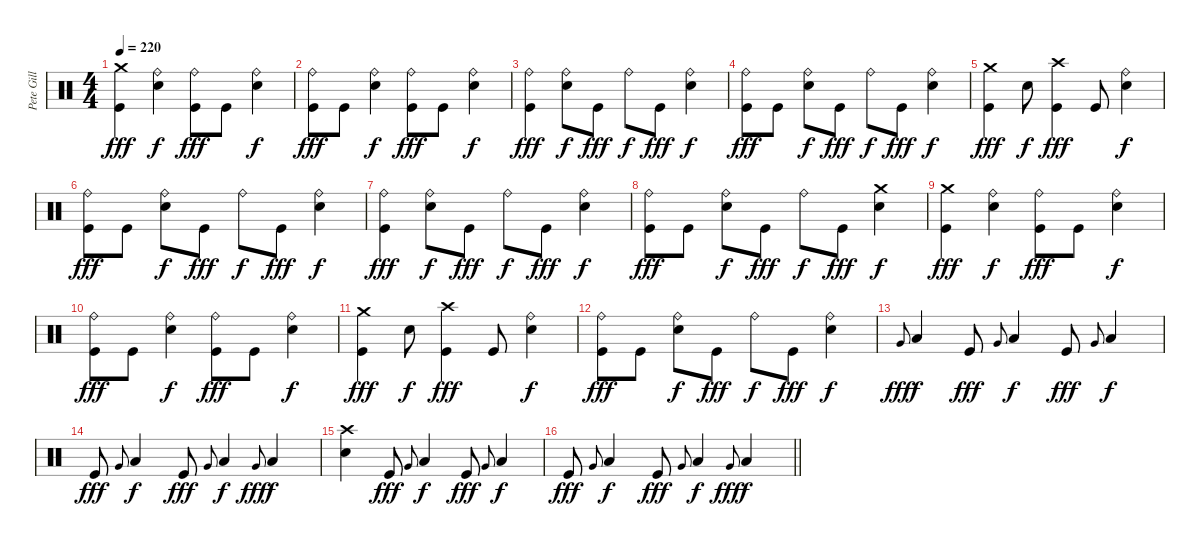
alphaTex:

\track ("Pete Gill" "Pete Gill") {instrument percussion}
\staff {score}
\articulation defaults
\ts (4 4)
\tempo 220
\clef neutral
\ks c
("Crash medium (hit)" "Kick (hit)").4{dy fff} ("Ride (bell)" "Electric Snare (hit)").4{dy f} ("Ride (bell)" "Kick (hit)").8{dy fff} "Kick (hit)".8 ("Ride (bell)" "Electric Snare (hit)").4{dy f} |
("Ride (bell)" "Kick (hit)").8{dy fff} "Kick (hit)".8 ("Ride (bell)" "Electric Snare (hit)").4{dy f} ("Ride (bell)" "Kick (hit)").8{dy fff} "Kick (hit)".8 ("Ride (bell)" "Electric Snare (hit)").4{dy f} |
("Ride (bell)" "Kick (hit)").4{dy fff} ("Ride (bell)" "Electric Snare (hit)").8{dy f} "Kick (hit)".8{dy fff} "Ride (bell)".8{dy f} "Kick (hit)".8{dy fff} ("Ride (bell)" "Electric Snare (hit)").4{dy f} |
("Ride (bell)" "Kick (hit)").8{dy fff} "Kick (hit)".8 ("Ride (bell)" "Electric Snare (hit)").8{dy f} "Kick (hit)".8{dy fff} "Ride (bell)".8{dy f} "Kick (hit)".8{dy fff} ("Ride (bell)" "Electric Snare (hit)").4{dy f} |
("Crash medium (hit)" "Kick (hit)").4{dy fff} "Electric Snare (hit)".8{dy f} ("Crash high (hit)" "Kick (hit)").4{dy fff} "Kick (hit)".8 ("Ride (bell)" "Electric Snare (hit)").4{dy f} |
("Ride (bell)" "Kick (hit)").8{dy fff} "Kick (hit)".8 ("Ride (bell)" "Electric Snare (hit)").8{dy f} "Kick (hit)".8{dy fff} "Ride (bell)".8{dy f} "Kick (hit)".8{dy fff} ("Ride (bell)" "Electric Snare (hit)").4{dy f} |
("Ride (bell)" "Kick (hit)").4{dy fff} ("Ride (bell)" "Electric Snare (hit)").8{dy f} "Kick (hit)".8{dy fff} "Ride (bell)".8{dy f} "Kick (hit)".8{dy fff} ("Ride (bell)" "Electric Snare (hit)").4{dy f} |
("Ride (bell)" "Kick (hit)").8{dy fff} "Kick (hit)".8 ("Ride (bell)" "Electric Snare (hit)").8{dy f} "Kick (hit)".8{dy fff} "Ride (bell)".8{dy f} "Kick (hit)".8{dy fff} ("Crash medium (hit)" "Electric Snare (hit)").4{dy f} |
("Crash medium (hit)" "Kick (hit)").4{dy fff} ("Ride (bell)" "Electric Snare (hit)").4{dy f} ("Ride (bell)" "Kick (hit)").8{dy fff} "Kick (hit)".8 ("Ride (bell)" "Electric Snare (hit)").4{dy f} |
("Ride (bell)" "Kick (hit)").8{dy fff} "Kick (hit)".8 ("Ride (bell)" "Electric Snare (hit)").4{dy f} ("Ride (bell)" "Kick (hit)").8{dy fff} "Kick (hit)".8 ("Ride (bell)" "Electric Snare (hit)").4{dy f} |
("Crash medium (hit)" "Kick (hit)").4{dy fff} "Electric Snare (hit)".8{dy f} ("Crash high (hit)" "Kick (hit)").4{dy fff} "Kick (hit)".8 ("Ride (bell)" "Electric Snare (hit)").4{dy f} |
("Ride (bell)" "Kick (hit)").8{dy fff} "Kick (hit)".8 ("Ride (bell)" "Electric Snare (hit)").8{dy f} "Kick (hit)".8{dy fff} "Ride (bell)".8{dy f} "Kick (hit)".8{dy fff} ("Ride (bell)" "Electric Snare (hit)").4{dy f} |
"Very Low Tom (hit)".8{gr onbeat dy fff} "Low Tom (hit)".4{dy f} "Kick (hit)".8{dy fff} "Very Low Tom (hit)".8{gr onbeat} "Low Tom (hit)".4{dy f} "Kick (hit)".8{dy fff} "Very Low Tom (hit)".8{gr onbeat} "Low Tom (hit)".4{dy f} |
"Kick (hit)".8{dy fff} "Very Low Tom (hit)".8{gr onbeat} "Low Tom (hit)".4{dy f} "Kick (hit)".8{dy fff} "Very Low Tom (hit)".8{gr onbeat} "Low Tom (hit)".4{dy f} "Very Low Tom (hit)".8{gr onbeat dy fff} "Low Tom (hit)".4{dy f} |
("Crash high (hit)" "Electric Snare (hit)").4 "Kick (hit)".8{dy fff} "Very Low Tom (hit)".8{gr onbeat} "Low Tom (hit)".4{dy f} "Kick (hit)".8{dy fff} "Very Low Tom (hit)".8{gr onbeat} "Low Tom (hit)".4{dy f} |
\barLineRight lightlight "Kick (hit)".8{dy fff} "Very Low Tom (hit)".8{gr onbeat} "Low Tom (hit)".4{dy f} "Kick (hit)".8{dy fff} "Very Low Tom (hit)".8{gr onbeat} "Low Tom (hit)".4{dy f} "Very Low Tom (hit)".8{gr onbeat dy fff} "Low Tom (hit)".4{dy f}
